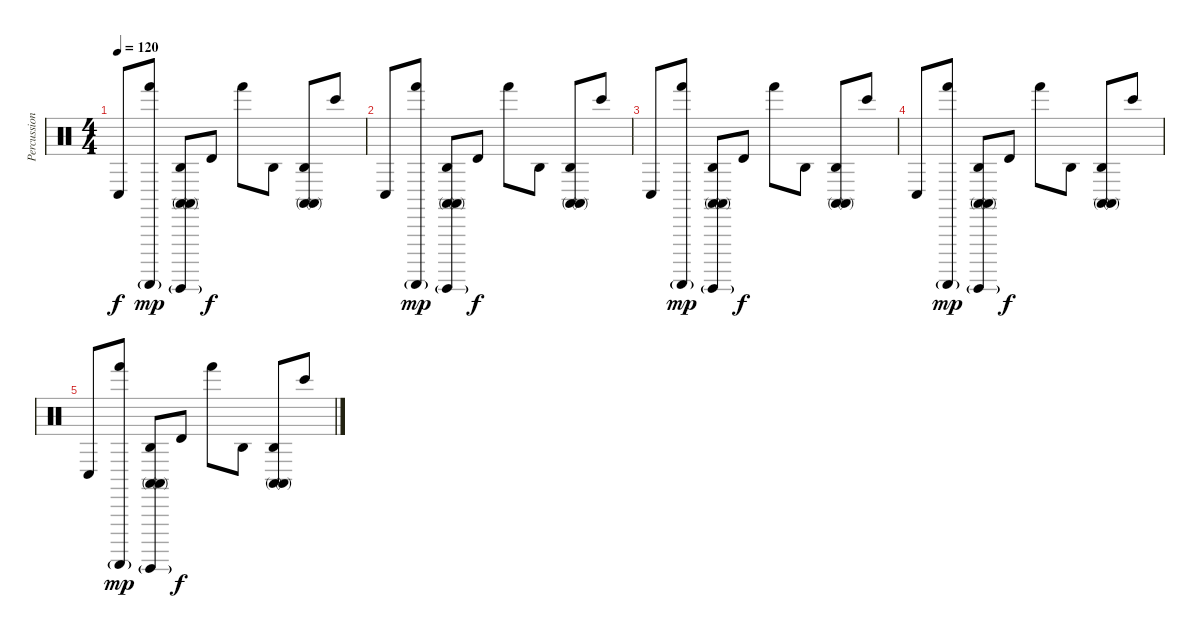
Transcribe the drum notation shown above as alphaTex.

\track ("Percussions" "Percussion") {instrument percussion}
\staff {score}
\articulation defaults
\ts (4 4)
\tempo 120
\clef neutral
\ks c "Conga low (hit)".8{dy f}
("Hand (hit)" "Guiro (scrap-return)"{g}).8{dy mp} ("Conga high (mute)" "Agogo high (hit)" "Conga high (mute)" "Guiro (hit)"{g}).8 "Timbale high (hit)".8{dy f} "Hand (hit)".8 "Agogo high (hit)".8 ("Agogo high (hit)" "Conga high (mute)" "Conga high (mute)").8 "Bongo High (hit)".8 |
"Conga low (hit)".8 ("Hand (hit)" "Guiro (scrap-return)"{g}).8{dy mp} ("Conga high (mute)" "Agogo high (hit)" "Conga high (mute)" "Guiro (hit)"{g}).8 "Timbale high (hit)".8{dy f} "Hand (hit)".8 "Agogo high (hit)".8 ("Agogo high (hit)" "Conga high (mute)" "Conga high (mute)").8 "Bongo High (hit)".8 |
"Conga low (hit)".8 ("Hand (hit)" "Guiro (scrap-return)"{g}).8{dy mp} ("Conga high (mute)" "Agogo high (hit)" "Conga high (mute)" "Guiro (hit)"{g}).8 "Timbale high (hit)".8{dy f} "Hand (hit)".8 "Agogo high (hit)".8 ("Agogo high (hit)" "Conga high (mute)" "Conga high (mute)").8 "Bongo High (hit)".8 |
"Conga low (hit)".8 ("Hand (hit)" "Guiro (scrap-return)"{g}).8{dy mp} ("Conga high (mute)" "Agogo high (hit)" "Conga high (mute)" "Guiro (hit)"{g}).8 "Timbale high (hit)".8{dy f} "Hand (hit)".8 "Agogo high (hit)".8 ("Agogo high (hit)" "Conga high (mute)" "Conga high (mute)").8 "Bongo High (hit)".8 |
"Conga low (hit)".8 ("Hand (hit)" "Guiro (scrap-return)"{g}).8{dy mp} ("Conga high (mute)" "Agogo high (hit)" "Conga high (mute)" "Guiro (hit)"{g}).8 "Timbale high (hit)".8{dy f} "Hand (hit)".8 "Agogo high (hit)".8 ("Agogo high (hit)" "Conga high (mute)" "Conga high (mute)").8 "Bongo High (hit)".8
